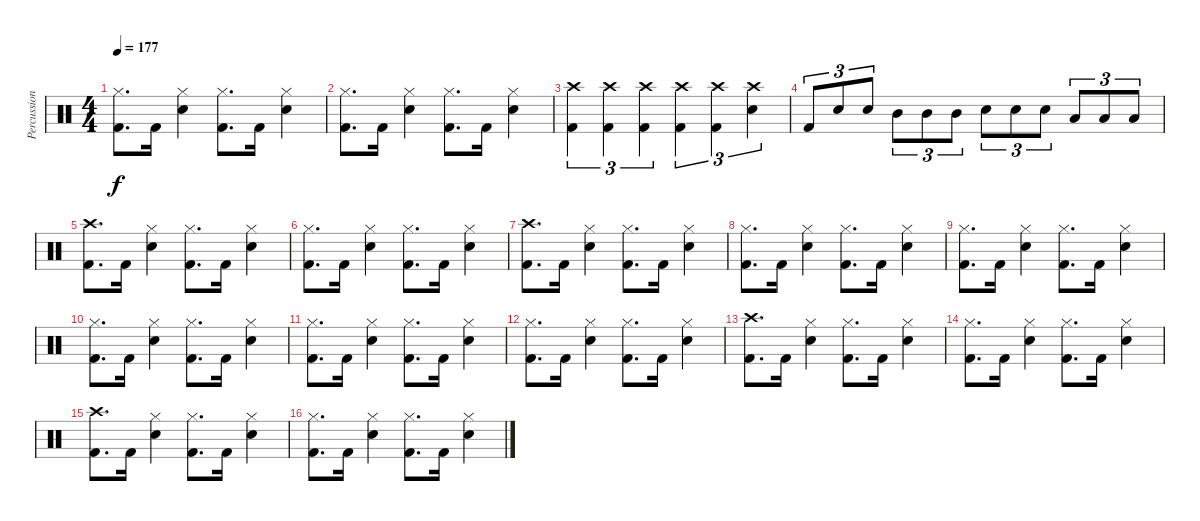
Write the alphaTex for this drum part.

\track ("Percussion" "Percussion") {instrument percussion}
\staff {score}
\articulation defaults
\ts (4 4)
\tempo 177
\clef neutral
\ks c
("Hi-Hat (closed)" "Kick (hit) 2").8{d dy f} "Kick (hit) 2".16 ("Hi-Hat (closed)" "Snare (hit) 2").4 ("Hi-Hat (closed)" "Kick (hit) 2").8{d} "Kick (hit) 2".16 ("Hi-Hat (closed)" "Snare (hit) 2").4 |
("Hi-Hat (closed)" "Kick (hit) 2").8{d} "Kick (hit) 2".16 ("Hi-Hat (closed)" "Snare (hit) 2").4 ("Hi-Hat (closed)" "Kick (hit) 2").8{d} "Kick (hit) 2".16 ("Hi-Hat (closed)" "Snare (hit) 2").4 |
("Crash high (hit)" "Kick (hit) 2").4{tu (3 2)} ("Crash high (hit)" "Kick (hit) 2").4{tu (3 2)} ("Crash high (hit)" "Kick (hit) 2").4{tu (3 2)} ("Crash high (hit)" "Kick (hit) 2").4{tu (3 2)} ("Crash high (hit)" "Kick (hit) 2").4{tu (3 2)} ("Crash high (hit)" "Snare (hit) 2").4{tu (3 2)} |
"Kick (hit) 2".8{tu (3 2)} "Snare (hit) 2".8{tu (3 2)} "Snare (hit) 2".8{tu (3 2)} "Mid Tom (hit)".8{tu (3 2)} "Mid Tom (hit)".8{tu (3 2)} "Mid Tom (hit)".8{tu (3 2)} "Snare (hit) 2".8{tu (3 2)} "Snare (hit) 2".8{tu (3 2)} "Snare (hit) 2".8{tu (3 2)} "Low Tom (hit)".8{tu (3 2)} "Low Tom (hit)".8{tu (3 2)} "Low Tom (hit)".8{tu (3 2)} |
("Crash high (hit)" "Kick (hit) 2").8{d} "Kick (hit) 2".16 ("Hi-Hat (closed)" "Snare (hit) 2").4 ("Hi-Hat (closed)" "Kick (hit) 2").8{d} "Kick (hit) 2".16 ("Hi-Hat (closed)" "Snare (hit) 2").4 |
("Hi-Hat (closed)" "Kick (hit) 2").8{d} "Kick (hit) 2".16 ("Hi-Hat (closed)" "Snare (hit) 2").4 ("Hi-Hat (closed)" "Kick (hit) 2").8{d} "Kick (hit) 2".16 ("Hi-Hat (closed)" "Snare (hit) 2").4 |
("Crash high (hit)" "Kick (hit) 2").8{d} "Kick (hit) 2".16 ("Hi-Hat (closed)" "Snare (hit) 2").4 ("Hi-Hat (closed)" "Kick (hit) 2").8{d} "Kick (hit) 2".16 ("Hi-Hat (closed)" "Snare (hit) 2").4 |
("Hi-Hat (closed)" "Kick (hit) 2").8{d} "Kick (hit) 2".16 ("Hi-Hat (closed)" "Snare (hit) 2").4 ("Hi-Hat (closed)" "Kick (hit) 2").8{d} "Kick (hit) 2".16 ("Hi-Hat (closed)" "Snare (hit) 2").4 |
("Hi-Hat (closed)" "Kick (hit) 2").8{d} "Kick (hit) 2".16 ("Hi-Hat (closed)" "Snare (hit) 2").4 ("Hi-Hat (closed)" "Kick (hit) 2").8{d} "Kick (hit) 2".16 ("Hi-Hat (closed)" "Snare (hit) 2").4 |
("Hi-Hat (closed)" "Kick (hit) 2").8{d} "Kick (hit) 2".16 ("Hi-Hat (closed)" "Snare (hit) 2").4 ("Hi-Hat (closed)" "Kick (hit) 2").8{d} "Kick (hit) 2".16 ("Hi-Hat (closed)" "Snare (hit) 2").4 |
("Hi-Hat (closed)" "Kick (hit) 2").8{d} "Kick (hit) 2".16 ("Hi-Hat (closed)" "Snare (hit) 2").4 ("Hi-Hat (closed)" "Kick (hit) 2").8{d} "Kick (hit) 2".16 ("Hi-Hat (closed)" "Snare (hit) 2").4 |
("Hi-Hat (closed)" "Kick (hit) 2").8{d} "Kick (hit) 2".16 ("Hi-Hat (closed)" "Snare (hit) 2").4 ("Hi-Hat (closed)" "Kick (hit) 2").8{d} "Kick (hit) 2".16 ("Hi-Hat (closed)" "Snare (hit) 2").4 |
("Crash high (hit)" "Kick (hit) 2").8{d} "Kick (hit) 2".16 ("Hi-Hat (closed)" "Snare (hit) 2").4 ("Hi-Hat (closed)" "Kick (hit) 2").8{d} "Kick (hit) 2".16 ("Hi-Hat (closed)" "Snare (hit) 2").4 |
("Hi-Hat (closed)" "Kick (hit) 2").8{d} "Kick (hit) 2".16 ("Hi-Hat (closed)" "Snare (hit) 2").4 ("Hi-Hat (closed)" "Kick (hit) 2").8{d} "Kick (hit) 2".16 ("Hi-Hat (closed)" "Snare (hit) 2").4 |
("Crash high (hit)" "Kick (hit) 2").8{d} "Kick (hit) 2".16 ("Hi-Hat (closed)" "Snare (hit) 2").4 ("Hi-Hat (closed)" "Kick (hit) 2").8{d} "Kick (hit) 2".16 ("Hi-Hat (closed)" "Snare (hit) 2").4 |
("Hi-Hat (closed)" "Kick (hit) 2").8{d} "Kick (hit) 2".16 ("Hi-Hat (closed)" "Snare (hit) 2").4 ("Hi-Hat (closed)" "Kick (hit) 2").8{d} "Kick (hit) 2".16 ("Hi-Hat (closed)" "Snare (hit) 2").4
